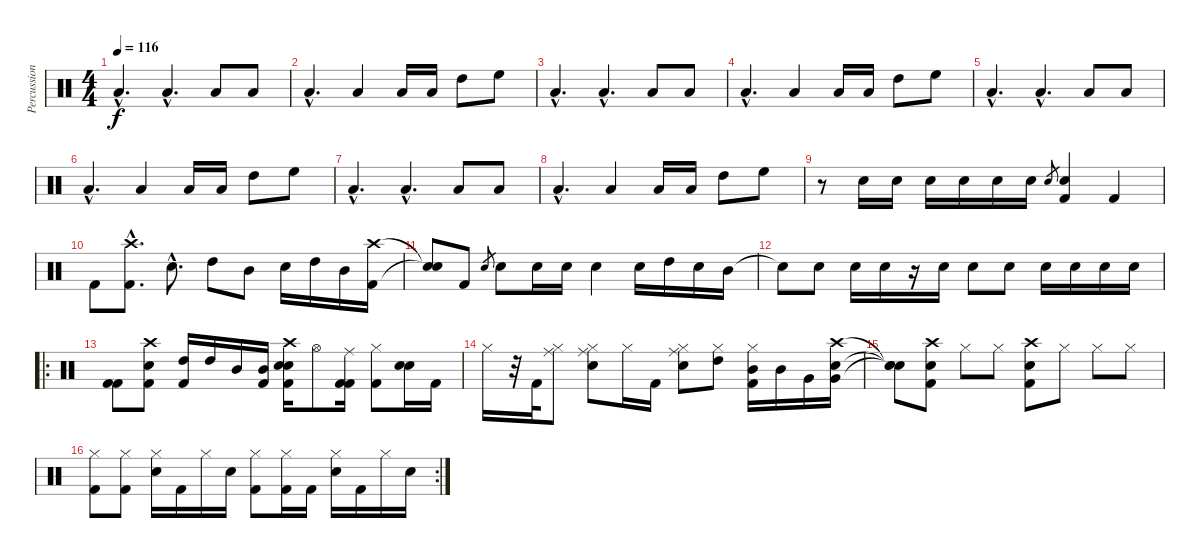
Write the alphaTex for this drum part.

\track ("Percussion" "Percussion") {instrument percussion}
\staff {score}
\articulation defaults
\ts (4 4)
\tempo 116
\clef neutral
\ks c "Low Tom (hit)"{hac}.4{d dy f} "Low Tom (hit)"{hac}.4{d} "Low Floor Tom (hit)".8 "Low Floor Tom (hit)".8
|
"Low Tom (hit)"{hac}.4{d} "Low Tom (hit)".4 "Low Tom (hit)".16 "Low Tom (hit)".16 "High Tom (hit)".8 "High Floor Tom (hit)".8 |
"Low Tom (hit)"{hac}.4{d} "Low Tom (hit)"{hac}.4{d} "Low Floor Tom (hit)".8 "Low Floor Tom (hit)".8 |
"Low Tom (hit)"{hac}.4{d} "Low Tom (hit)".4 "Low Tom (hit)".16 "Low Tom (hit)".16 "High Tom (hit)".8 "High Floor Tom (hit)".8 |
"Low Tom (hit)"{hac}.4{d} "Low Tom (hit)"{hac}.4{d} "Low Floor Tom (hit)".8 "Low Floor Tom (hit)".8 |
"Low Tom (hit)"{hac}.4{d} "Low Tom (hit)".4 "Low Tom (hit)".16 "Low Tom (hit)".16 "High Tom (hit)".8 "High Floor Tom (hit)".8 |
"Low Tom (hit)"{hac}.4{d} "Low Tom (hit)"{hac}.4{d} "Low Floor Tom (hit)".8 "Low Floor Tom (hit)".8 |
"Low Tom (hit)"{hac}.4{d} "Low Tom (hit)".4 "Low Tom (hit)".16 "Low Tom (hit)".16 "High Tom (hit)".8 "High Floor Tom (hit)".8 |
r.8 "Snare (hit) 2".16 "Snare (hit) 2".16 "Snare (hit) 2".16 "Snare (hit) 2".16 "Snare (hit) 2".16 "Snare (hit) 2".16 "Snare (hit) 2".8{gr} ("Snare (hit) 2" "Kick (hit) 2").4 "Kick (hit) 2".4 |
"Kick (hit) 2".8 ("Crash high (hit)"{hac} "Kick (hit) 2"{hac}).8{d} "Snare (hit) 2"{hac}.8{d} "High Tom (hit)".8 "Mid Tom (hit)".8 "Snare (hit) 2".16 "High Tom (hit)".16 "Mid Tom (hit)".16 ("Crash high (hit)" "Kick (hit) 2").16 |
("Snare (hit)"{t} "Snare (hit)"{t}).8 "Kick (hit) 2".8 "Snare (hit) 2".8{gr} "Snare (hit) 2".8 "Snare (hit) 2".16 "Snare (hit) 2".16 "Snare (hit) 2".4 "Snare (hit) 2".16 "High Tom (hit)".16 "Snare (hit) 2".16 "Mid Tom (hit)".16 |
"Snare (hit)"{t}.8 "Snare (hit) 2".8 "Snare (hit) 2".16 "Snare (hit) 2".16 r.16 "Snare (hit) 2".16 "Snare (hit) 2".8 "Snare (hit) 2".8 "Snare (hit) 2".16 "Snare (hit) 2".16 "Snare (hit) 2".16 "Snare (hit) 2".16 |
\ro
("Kick (hit) 2" "Kick (hit) 2").8 ("Crash high (hit)" "Snare (hit) 2" "Kick (hit) 2").8 ("High Tom (hit)" "Kick (hit) 2").16 "High Tom (hit)".16 "Mid Tom (hit)".16 ("Mid Tom (hit)" "Kick (hit) 2").16 ("Crash high (hit)" "Snare (hit) 2" "Snare (hit) 2" "Kick (hit) 2").16 "Hi-Hat (open)".8 ("Ride (middle)" "Kick (hit) 2" "Kick (hit) 2").16 ("Hi-Hat (closed)" "Kick (hit) 2").8 ("Snare (hit) 2" "Snare (hit) 2").16 "Kick (hit) 2".16 |
"Hi-Hat (closed)".16 r.32 "Kick (hit) 2".32 ("Hi-Hat (closed)" "Ride (middle)").8 ("Hi-Hat (closed)" "Ride (middle)" "Snare (hit) 2").8 "Hi-Hat (closed)".16 "Kick (hit) 2".16 ("Hi-Hat (closed)" "Ride (middle)" "Snare (hit) 2").8 ("Hi-Hat (closed)" "High Tom (hit)").8 ("Hi-Hat (closed)" "Mid Tom (hit)" "Kick (hit) 2").16 "Mid Tom (hit)".16 "Very Low Tom (hit)".16 ("Crash high (hit)" "Snare (hit) 2" "Very Low Tom (hit)").16 |
("Snare (hit)"{t} "Snare (hit)"{t} "Snare (hit)"{t}).8 ("Crash high (hit)" "Snare (hit) 2" "Kick (hit) 2").8 "Hi-Hat (closed)".8 "Hi-Hat (closed)".8 ("Crash high (hit)" "Snare (hit) 2" "Kick (hit) 2").8 "Hi-Hat (closed)".8 "Hi-Hat (closed)".8 "Hi-Hat (closed)".8 |
\rc 2
("Hi-Hat (closed)" "Kick (hit) 2").8 ("Hi-Hat (closed)" "Kick (hit) 2").8 ("Hi-Hat (closed)" "Snare (hit) 2").16 "Kick (hit) 2".16 "Hi-Hat (closed)".16 "Snare (hit) 2".16 ("Hi-Hat (closed)" "Kick (hit) 2").8 ("Hi-Hat (closed)" "Kick (hit) 2").16 "Kick (hit) 2".16 ("Hi-Hat (closed)" "Snare (hit) 2").16 "Kick (hit) 2".16 "Hi-Hat (closed)".16 "Snare (hit) 2".16
